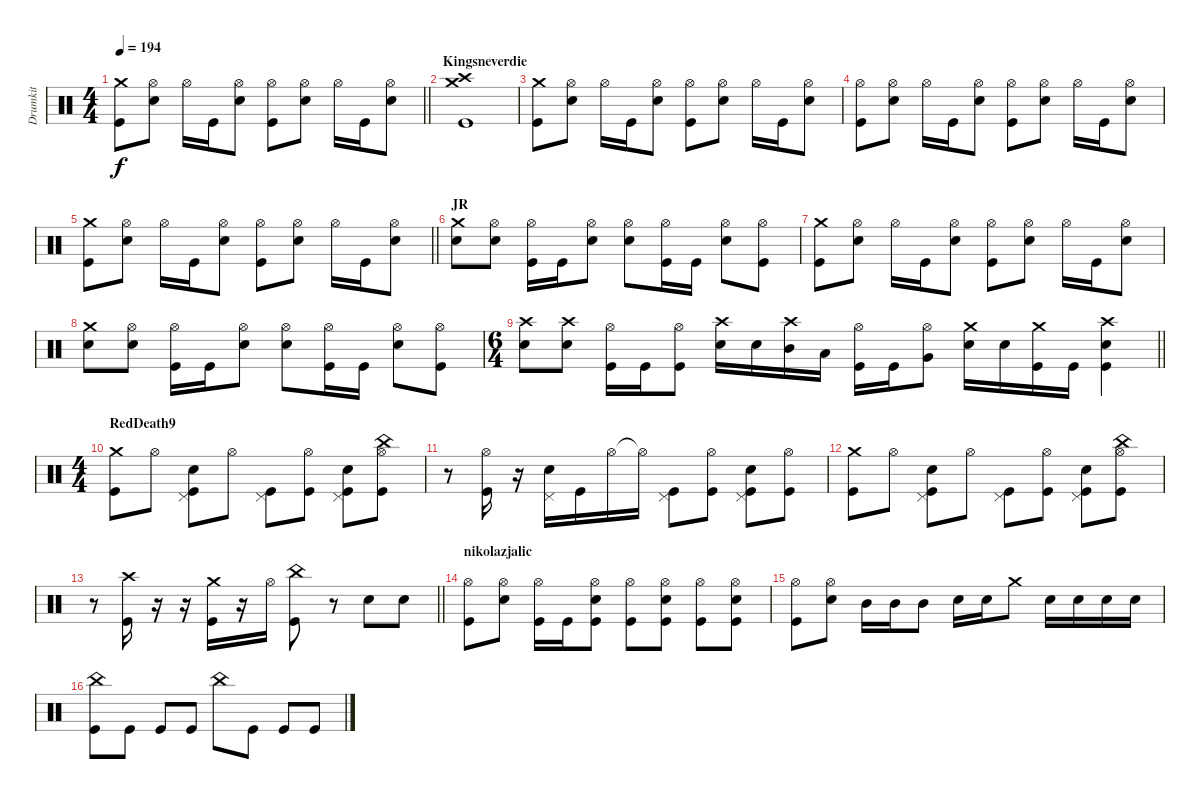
\track ("Drumkit" "Drumkit") {instrument percussion}
\staff {score}
\articulation defaults
\ts (4 4)
\tempo 194
\clef neutral
\barLineRight lightlight
\ks c
("Crash medium (hit)" "Kick (hit)").8{dy f} ("Hi-Hat (open)" "Snare (hit) 2").8 "Hi-Hat (open)".16 "Kick (hit)".16 ("Hi-Hat (open)" "Snare (hit) 2").8 ("Hi-Hat (open)" "Kick (hit)").8 ("Hi-Hat (open)" "Snare (hit) 2").8 "Hi-Hat (open)".16 "Kick (hit)".16 ("Hi-Hat (open)" "Snare (hit) 2").8 |
\section ("" "Kingsneverdie")
("Crash medium (hit)" "Crash high (hit)" "Kick (hit)").1 |
("Crash medium (hit)" "Kick (hit)").8 ("Hi-Hat (open)" "Snare (hit) 2").8 "Hi-Hat (open)".16 "Kick (hit)".16 ("Hi-Hat (open)" "Snare (hit) 2").8 ("Hi-Hat (open)" "Kick (hit)").8 ("Hi-Hat (open)" "Snare (hit) 2").8 "Hi-Hat (open)".16 "Kick (hit)".16 ("Hi-Hat (open)" "Snare (hit) 2").8 |
("Hi-Hat (open)" "Kick (hit)").8 ("Hi-Hat (open)" "Snare (hit) 2").8 "Hi-Hat (open)".16 "Kick (hit)".16 ("Hi-Hat (open)" "Snare (hit) 2").8 ("Hi-Hat (open)" "Kick (hit)").8 ("Hi-Hat (open)" "Snare (hit) 2").8 "Hi-Hat (open)".16 "Kick (hit)".16 ("Hi-Hat (open)" "Snare (hit) 2").8 |
\barLineRight lightlight
("Crash medium (hit)" "Kick (hit)").8 ("Hi-Hat (open)" "Snare (hit) 2").8 "Hi-Hat (open)".16 "Kick (hit)".16 ("Hi-Hat (open)" "Snare (hit) 2").8 ("Hi-Hat (open)" "Kick (hit)").8 ("Hi-Hat (open)" "Snare (hit) 2").8 "Hi-Hat (open)".16 "Kick (hit)".16 ("Hi-Hat (open)" "Snare (hit) 2").8 |
\section ("" "JR")
("Crash medium (hit)" "Snare (hit) 2").8 ("Hi-Hat (open)" "Snare (hit) 2").8 ("Hi-Hat (open)" "Kick (hit)").16 "Kick (hit)".16 ("Hi-Hat (open)" "Snare (hit) 2").8 ("Hi-Hat (open)" "Snare (hit) 2").8 ("Hi-Hat (open)" "Kick (hit)").16 "Kick (hit)".16 ("Snare (hit) 2" "Hi-Hat (open)").8 ("Hi-Hat (open)" "Kick (hit)").8 |
("Crash medium (hit)" "Kick (hit)").8 ("Hi-Hat (open)" "Snare (hit) 2").8 "Hi-Hat (open)".16 "Kick (hit)".16 ("Hi-Hat (open)" "Snare (hit) 2").8 ("Hi-Hat (open)" "Kick (hit)").8 ("Hi-Hat (open)" "Snare (hit) 2").8 "Hi-Hat (open)".16 "Kick (hit)".16 ("Hi-Hat (open)" "Snare (hit) 2").8 |
("Crash medium (hit)" "Snare (hit) 2").8 ("Hi-Hat (open)" "Snare (hit) 2").8 ("Hi-Hat (open)" "Kick (hit)").16 "Kick (hit)".16 ("Hi-Hat (open)" "Snare (hit) 2").8 ("Hi-Hat (open)" "Snare (hit) 2").8 ("Hi-Hat (open)" "Kick (hit)").16 "Kick (hit)".16 ("Snare (hit) 2" "Hi-Hat (open)").8 ("Hi-Hat (open)" "Kick (hit)").8 |
\ts (6 4)
\barLineRight lightlight
("Crash high (hit)" "Snare (hit) 2").8 ("Crash high (hit)" "Snare (hit) 2").8 ("Hi-Hat (open)" "Kick (hit)").16 "Kick (hit)".16 ("Hi-Hat (open)" "Kick (hit)").8 ("Crash high (hit)" "Snare (hit) 2").16 "Snare (hit) 2".16 ("Crash high (hit)" "Mid Tom (hit)").16 "Low Tom (hit)".16 ("Hi-Hat (open)" "Kick (hit)").16 "Kick (hit)".16 ("Hi-Hat (open)" "Very Low Tom (hit)").8 ("Crash medium (hit)" "Snare (hit) 2").16 "Snare (hit) 2".16 ("Crash medium (hit)" "Kick (hit)").16 "Kick (hit)".16 ("Crash high (hit)" "Snare (hit) 2" "Kick (hit)").4 |
\ts (4 4)
\section ("" "RedDeath9")
("Crash medium (hit)" "Kick (hit)").8 "Hi-Hat (open)".8 ("Pedal Hi-Hat (hit)" "Snare (hit) 2" "Kick (hit)").8 "Hi-Hat (open)".8 ("Pedal Hi-Hat (hit)" "Kick (hit)").8 ("Hi-Hat (open)" "Kick (hit)").8 ("Pedal Hi-Hat (hit)" "Snare (hit) 2" "Kick (hit)").8 ("Hi-Hat (open)" "China (hit)" "Kick (hit)").8 |
r.8 ("Hi-Hat (open)" "Kick (hit)").16 r.16 ("Pedal Hi-Hat (hit)" "Snare (hit) 2").16 "Kick (hit)".16 "Hi-Hat (open)".16 "Hi-Hat (open)"{t}.16 ("Pedal Hi-Hat (hit)" "Kick (hit)").8 ("Hi-Hat (open)" "Kick (hit)").8 ("Pedal Hi-Hat (hit)" "Snare (hit) 2" "Kick (hit)").8 ("Hi-Hat (open)" "Kick (hit)").8 |
("Crash medium (hit)" "Kick (hit)").8 "Hi-Hat (open)".8 ("Pedal Hi-Hat (hit)" "Snare (hit) 2" "Kick (hit)").8 "Hi-Hat (open)".8 ("Pedal Hi-Hat (hit)" "Kick (hit)").8 ("Hi-Hat (open)" "Kick (hit)").8 ("Pedal Hi-Hat (hit)" "Snare (hit) 2" "Kick (hit)").8 ("Hi-Hat (open)" "China (hit)" "Kick (hit)").8 |
\barLineRight lightlight
r.8 ("Crash high (hit)" "Kick (hit)").16 r.16 r.16 ("Crash medium (hit)" "Kick (hit)").16 r.16 "Hi-Hat (open)".16 ("China (hit)" "Kick (hit)").8 r.8 "Snare (hit) 2".8 "Snare (hit) 2".8 |
\section ("" "nikolazjalic")
("Hi-Hat (open)" "Kick (hit)").8 ("Hi-Hat (open)" "Snare (hit) 2").8 ("Hi-Hat (open)" "Kick (hit)").16 "Kick (hit)".16 ("Hi-Hat (open)" "Snare (hit) 2" "Kick (hit)").8 ("Hi-Hat (open)" "Kick (hit)").8 ("Hi-Hat (open)" "Snare (hit) 2" "Kick (hit)").8 ("Hi-Hat (open)" "Kick (hit)").8 ("Hi-Hat (open)" "Snare (hit) 2" "Kick (hit)").8 |
("Hi-Hat (open)" "Kick (hit)").8 ("Hi-Hat (open)" "Snare (hit) 2").8 "Mid Tom (hit)".16 "Mid Tom (hit)".16 "Mid Tom (hit)".8 "Snare (hit) 2".16 "Snare (hit) 2".16 "Crash medium (hit)".8 "Snare (hit) 2".16 "Snare (hit) 2".16 "Snare (hit) 2".16 "Snare (hit) 2".16 |
("China (hit)" "Kick (hit)").8 "Kick (hit)".8 "Kick (hit)".8 "Kick (hit)".8 "China (hit)".8 "Kick (hit)".8 "Kick (hit)".8 "Kick (hit)".8
